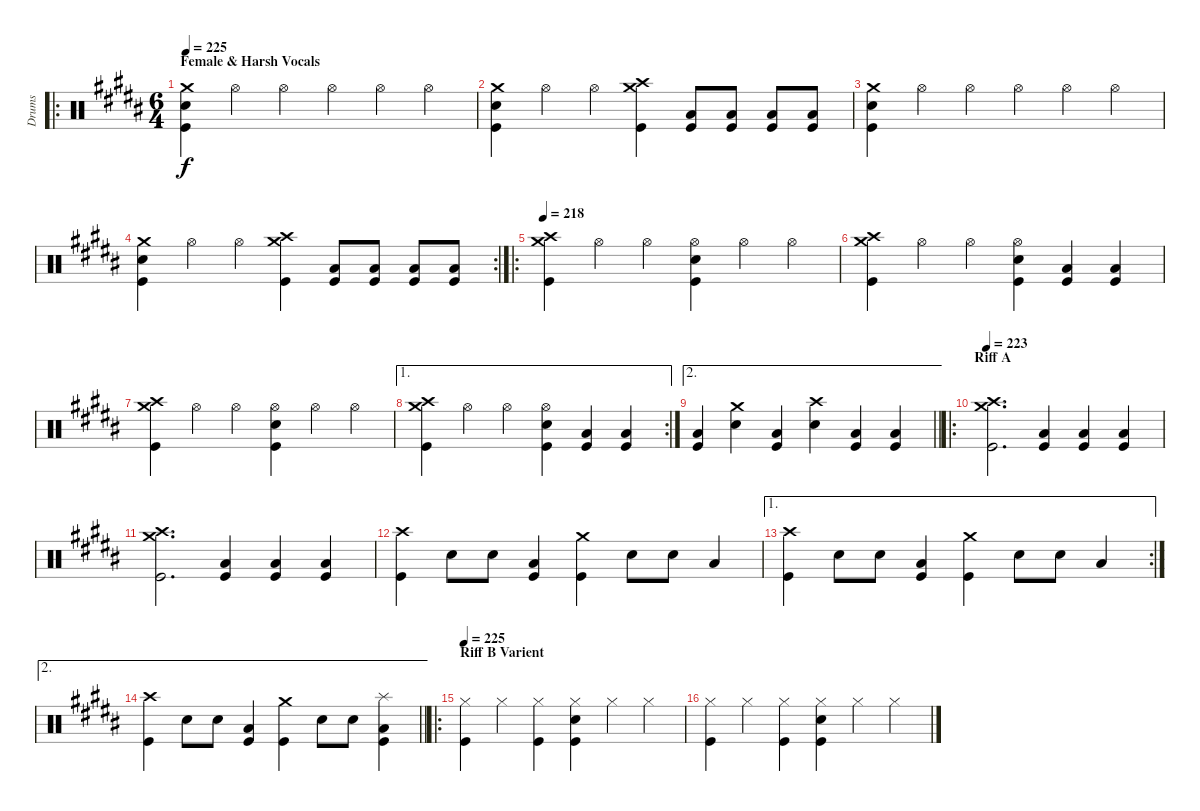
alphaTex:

\track ("Drums" "Drums") {instrument percussion}
\staff {score}
\articulation defaults
\ro
\ts (6 4)
\section ("" "Female & Harsh Vocals")
\tempo 225
\clef neutral
\ks b
("Crash medium (hit)" "Snare (hit) 2" "Kick (hit)").4{dy f} "Hi-Hat (open)".4 "Hi-Hat (open)".4 "Hi-Hat (open)".4 "Hi-Hat (open)".4 "Hi-Hat (open)".4 |
("Crash medium (hit)" "Snare (hit) 2" "Kick (hit)").4 "Hi-Hat (open)".4 "Hi-Hat (open)".4 ("Crash high (hit)" "Crash medium (hit)" "Kick (hit)").4 ("Low Floor Tom (hit)" "Kick (hit)").8 ("Low Floor Tom (hit)" "Kick (hit)").8 ("Low Floor Tom (hit)" "Kick (hit)").8 ("Low Floor Tom (hit)" "Kick (hit)").8 |
("Crash medium (hit)" "Snare (hit) 2" "Kick (hit)").4 "Hi-Hat (open)".4 "Hi-Hat (open)".4 "Hi-Hat (open)".4 "Hi-Hat (open)".4 "Hi-Hat (open)".4 |
\rc 2
("Crash medium (hit)" "Snare (hit) 2" "Kick (hit)").4 "Hi-Hat (open)".4 "Hi-Hat (open)".4 ("Crash high (hit)" "Crash medium (hit)" "Kick (hit)").4 ("Low Floor Tom (hit)" "Kick (hit)").8 ("Low Floor Tom (hit)" "Kick (hit)").8 ("Low Floor Tom (hit)" "Kick (hit)").8 ("Low Floor Tom (hit)" "Kick (hit)").8 |
\ro
\tempo 218
("Crash high (hit)" "Crash medium (hit)" "Kick (hit)").4 "Hi-Hat (open)".4 "Hi-Hat (open)".4 ("Hi-Hat (open)" "Snare (hit) 2" "Kick (hit)").4 "Hi-Hat (open)".4 "Hi-Hat (open)".4 |
("Crash high (hit)" "Crash medium (hit)" "Kick (hit)").4 "Hi-Hat (open)".4 "Hi-Hat (open)".4 ("Hi-Hat (open)" "Snare (hit) 2" "Kick (hit)").4 ("Low Floor Tom (hit)" "Kick (hit)").4 ("Low Floor Tom (hit)" "Kick (hit)").4 |
("Crash high (hit)" "Crash medium (hit)" "Kick (hit)").4 "Hi-Hat (open)".4 "Hi-Hat (open)".4 ("Hi-Hat (open)" "Snare (hit) 2" "Kick (hit)").4 "Hi-Hat (open)".4 "Hi-Hat (open)".4 |
\ae 1
\rc 2
("Crash high (hit)" "Crash medium (hit)" "Kick (hit)").4 "Hi-Hat (open)".4 "Hi-Hat (open)".4 ("Hi-Hat (open)" "Snare (hit) 2" "Kick (hit)").4 ("Low Floor Tom (hit)" "Kick (hit)").4 ("Low Floor Tom (hit)" "Kick (hit)").4 |
\ae 2
\barLineRight lightlight
("Low Floor Tom (hit)" "Kick (hit)").4 ("Crash medium (hit)" "Snare (hit) 2").4 ("Low Floor Tom (hit)" "Kick (hit)").4 ("Crash high (hit)" "Snare (hit) 2").4 ("Low Floor Tom (hit)" "Kick (hit)").4 ("Low Floor Tom (hit)" "Kick (hit)").4 |
\ro
\section ("" "Riff A")
\tempo 223
("Crash high (hit)" "Crash medium (hit)" "Kick (hit)").2{d} ("Low Floor Tom (hit)" "Kick (hit)").4 ("Low Floor Tom (hit)" "Kick (hit)").4 ("Low Floor Tom (hit)" "Kick (hit)").4 |
("Crash high (hit)" "Crash medium (hit)" "Kick (hit)").2{d} ("Low Floor Tom (hit)" "Kick (hit)").4 ("Low Floor Tom (hit)" "Kick (hit)").4 ("Low Floor Tom (hit)" "Kick (hit)").4 |
("Crash high (hit)" "Kick (hit)").4 "Snare (hit) 2".8 "Snare (hit) 2".8 ("Low Floor Tom (hit)" "Kick (hit)").4 ("Crash medium (hit)" "Kick (hit)").4 "Snare (hit) 2".8 "Snare (hit) 2".8 "Low Floor Tom (hit)".4 |
\ae 1
\rc 2
("Crash high (hit)" "Kick (hit)").4 "Snare (hit) 2".8 "Snare (hit) 2".8 ("Low Floor Tom (hit)" "Kick (hit)").4 ("Crash medium (hit)" "Kick (hit)").4 "Snare (hit) 2".8 "Snare (hit) 2".8 "Low Floor Tom (hit)".4 |
\ae 2
\barLineRight lightlight
("Crash high (hit)" "Kick (hit)").4 "Snare (hit) 2".8 "Snare (hit) 2".8 ("Low Floor Tom (hit)" "Kick (hit)").4 ("Crash medium (hit)" "Kick (hit)").4 "Snare (hit) 2".8 "Snare (hit) 2".8 ("Splash (hit)" "Low Floor Tom (hit)" "Kick (hit)").4 |
\ro
\section ("" "Riff B Varient")
\tempo 225
("Hi-Hat (closed)" "Kick (hit)").4 "Hi-Hat (closed)".4 ("Hi-Hat (closed)" "Kick (hit)").4 ("Hi-Hat (closed)" "Snare (hit) 2" "Kick (hit)").4 "Hi-Hat (closed)".4 "Hi-Hat (closed)".4 |
("Hi-Hat (closed)" "Kick (hit)").4 "Hi-Hat (closed)".4 ("Hi-Hat (closed)" "Kick (hit)").4 ("Hi-Hat (closed)" "Snare (hit) 2" "Kick (hit)").4 "Hi-Hat (closed)".4 "Hi-Hat (closed)".4
